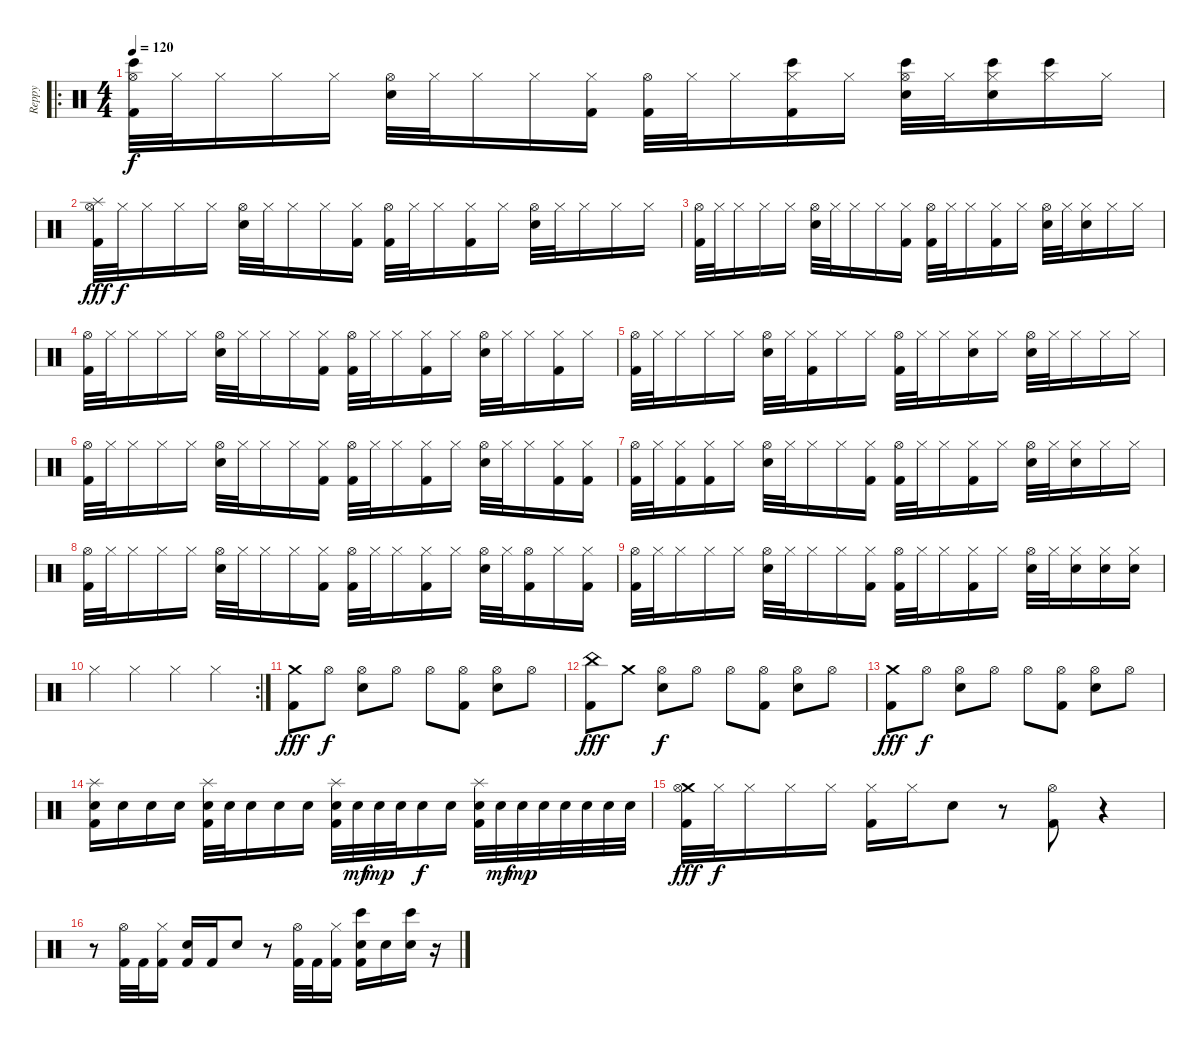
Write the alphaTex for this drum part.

\track ("Reppy" "Reppy") {instrument percussion}
\staff {score}
\articulation defaults
\ro
\ts (4 4)
\tempo 120
\clef neutral
\ks c
("Bongo High (hit)" "Hi-Hat (open)" "Kick (hit) 2").32{dy f} "Hi-Hat (closed)".32 "Hi-Hat (closed)".16 "Hi-Hat (closed)".16 "Hi-Hat (closed)".16 ("Hi-Hat (open)" "Electric Snare (hit)").32 "Hi-Hat (closed)".32 "Hi-Hat (closed)".16 "Hi-Hat (closed)".16 ("Hi-Hat (closed)" "Kick (hit) 2").16 ("Hi-Hat (open)" "Kick (hit) 2").32 "Hi-Hat (closed)".32 "Hi-Hat (closed)".16 ("Bongo High (hit)" "Hi-Hat (closed)" "Kick (hit) 2").16 "Hi-Hat (closed)".16 ("Bongo High (hit)" "Hi-Hat (open)" "Electric Snare (hit)").32 "Hi-Hat (closed)".32 ("Bongo High (hit)" "Hi-Hat (closed)" "Electric Snare (hit)").16 ("Bongo High (hit)" "Hi-Hat (closed)").16 "Hi-Hat (closed)".16 |
("Splash (hit)" "Hi-Hat (open)" "Kick (hit) 2").32{dy fff} "Hi-Hat (closed)".32{dy f} "Hi-Hat (closed)".16 "Hi-Hat (closed)".16 "Hi-Hat (closed)".16 ("Hi-Hat (open)" "Electric Snare (hit)").32 "Hi-Hat (closed)".32 "Hi-Hat (closed)".16 "Hi-Hat (closed)".16 ("Hi-Hat (closed)" "Kick (hit) 2").16 ("Hi-Hat (open)" "Kick (hit) 2").32 "Hi-Hat (closed)".32 "Hi-Hat (closed)".16 ("Hi-Hat (closed)" "Kick (hit) 2").16 "Hi-Hat (closed)".16 ("Hi-Hat (open)" "Electric Snare (hit)").32 "Hi-Hat (closed)".32 "Hi-Hat (closed)".16 "Hi-Hat (closed)".16 "Hi-Hat (closed)".16 |
("Hi-Hat (open)" "Kick (hit) 2").32 "Hi-Hat (closed)".32 "Hi-Hat (closed)".16 "Hi-Hat (closed)".16 "Hi-Hat (closed)".16 ("Hi-Hat (open)" "Electric Snare (hit)").32 "Hi-Hat (closed)".32 "Hi-Hat (closed)".16 "Hi-Hat (closed)".16 ("Hi-Hat (closed)" "Kick (hit) 2").16 ("Hi-Hat (open)" "Kick (hit) 2").32 "Hi-Hat (closed)".32 "Hi-Hat (closed)".16 ("Hi-Hat (closed)" "Kick (hit) 2").16 "Hi-Hat (closed)".16 ("Hi-Hat (open)" "Electric Snare (hit)").32 "Hi-Hat (closed)".32 ("Hi-Hat (closed)" "Electric Snare (hit)").16 "Hi-Hat (closed)".16 "Hi-Hat (closed)".16 |
("Hi-Hat (open)" "Kick (hit) 2").32 "Hi-Hat (closed)".32 "Hi-Hat (closed)".16 "Hi-Hat (closed)".16 "Hi-Hat (closed)".16 ("Hi-Hat (open)" "Electric Snare (hit)").32 "Hi-Hat (closed)".32 "Hi-Hat (closed)".16 "Hi-Hat (closed)".16 ("Hi-Hat (closed)" "Kick (hit) 2").16 ("Hi-Hat (open)" "Kick (hit) 2").32 "Hi-Hat (closed)".32 "Hi-Hat (closed)".16 ("Hi-Hat (closed)" "Kick (hit) 2").16 "Hi-Hat (closed)".16 ("Hi-Hat (open)" "Electric Snare (hit)").32 "Hi-Hat (closed)".32 "Hi-Hat (closed)".16 ("Hi-Hat (closed)" "Kick (hit) 2").16 "Hi-Hat (closed)".16 |
("Hi-Hat (open)" "Kick (hit) 2").32 "Hi-Hat (closed)".32 "Hi-Hat (closed)".16 "Hi-Hat (closed)".16 "Hi-Hat (closed)".16 ("Hi-Hat (open)" "Electric Snare (hit)").32 "Hi-Hat (closed)".32 ("Hi-Hat (closed)" "Kick (hit) 2").16 "Hi-Hat (closed)".16 "Hi-Hat (closed)".16 ("Hi-Hat (open)" "Kick (hit) 2").32 "Hi-Hat (closed)".32 "Hi-Hat (closed)".16 ("Hi-Hat (closed)" "Electric Snare (hit)").16 "Hi-Hat (closed)".16 ("Hi-Hat (open)" "Electric Snare (hit)").32 "Hi-Hat (closed)".32 "Hi-Hat (closed)".16 "Hi-Hat (closed)".16 "Hi-Hat (closed)".16 |
("Hi-Hat (open)" "Kick (hit) 2").32 "Hi-Hat (closed)".32 "Hi-Hat (closed)".16 "Hi-Hat (closed)".16 "Hi-Hat (closed)".16 ("Hi-Hat (open)" "Electric Snare (hit)").32 "Hi-Hat (closed)".32 "Hi-Hat (closed)".16 "Hi-Hat (closed)".16 ("Hi-Hat (closed)" "Kick (hit) 2").16 ("Hi-Hat (open)" "Kick (hit) 2").32 "Hi-Hat (closed)".32 "Hi-Hat (closed)".16 ("Hi-Hat (closed)" "Kick (hit) 2").16 "Hi-Hat (closed)".16 ("Hi-Hat (open)" "Electric Snare (hit)").32 "Hi-Hat (closed)".32 "Hi-Hat (closed)".16 ("Hi-Hat (closed)" "Kick (hit) 2").16 ("Hi-Hat (closed)" "Kick (hit) 2").16 |
("Hi-Hat (open)" "Kick (hit) 2").32 "Hi-Hat (closed)".32 ("Hi-Hat (closed)" "Kick (hit) 2").16 ("Hi-Hat (closed)" "Kick (hit) 2").16 "Hi-Hat (closed)".16 ("Hi-Hat (open)" "Electric Snare (hit)").32 "Hi-Hat (closed)".32 "Hi-Hat (closed)".16 "Hi-Hat (closed)".16 ("Hi-Hat (closed)" "Kick (hit) 2").16 ("Hi-Hat (open)" "Kick (hit) 2").32 "Hi-Hat (closed)".32 "Hi-Hat (closed)".16 ("Hi-Hat (closed)" "Kick (hit) 2").16 "Hi-Hat (closed)".16 ("Hi-Hat (open)" "Electric Snare (hit)").32 "Hi-Hat (closed)".32 ("Hi-Hat (closed)" "Electric Snare (hit)").16 "Hi-Hat (closed)".16 "Hi-Hat (closed)".16 |
("Hi-Hat (open)" "Kick (hit) 2").32 "Hi-Hat (closed)".32 "Hi-Hat (closed)".16 "Hi-Hat (closed)".16 "Hi-Hat (closed)".16 ("Hi-Hat (open)" "Electric Snare (hit)").32 "Hi-Hat (closed)".32 "Hi-Hat (closed)".16 "Hi-Hat (closed)".16 ("Hi-Hat (closed)" "Kick (hit) 2").16 ("Hi-Hat (open)" "Kick (hit) 2").32 "Hi-Hat (closed)".32 "Hi-Hat (closed)".16 ("Hi-Hat (closed)" "Kick (hit) 2").16 "Hi-Hat (closed)".16 ("Hi-Hat (open)" "Electric Snare (hit)").32 "Hi-Hat (closed)".32 ("Hi-Hat (open)" "Kick (hit) 2").16 "Hi-Hat (closed)".16 ("Hi-Hat (closed)" "Kick (hit) 2").16 |
("Hi-Hat (open)" "Kick (hit) 2").32 "Hi-Hat (closed)".32 "Hi-Hat (closed)".16 "Hi-Hat (closed)".16 "Hi-Hat (closed)".16 ("Hi-Hat (open)" "Electric Snare (hit)").32 "Hi-Hat (closed)".32 "Hi-Hat (closed)".16 "Hi-Hat (closed)".16 ("Hi-Hat (closed)" "Kick (hit) 2").16 ("Hi-Hat (open)" "Kick (hit) 2").32 "Hi-Hat (closed)".32 "Hi-Hat (closed)".16 ("Hi-Hat (closed)" "Kick (hit) 2").16 "Hi-Hat (closed)".16 ("Hi-Hat (open)" "Electric Snare (hit)").32 "Hi-Hat (closed)".32 ("Hi-Hat (closed)" "Electric Snare (hit)").16 ("Hi-Hat (closed)" "Electric Snare (hit)").16 ("Hi-Hat (closed)" "Electric Snare (hit)").16 |
\rc 2 "Hi-Hat (closed)".4 "Hi-Hat (closed)".4 "Hi-Hat (closed)".4 "Hi-Hat (closed)".4
|
("Crash medium (hit)" "Kick (hit) 2").8{dy fff} "Hi-Hat (open)".8{dy f} ("Hi-Hat (open)" "Electric Snare (hit)").8 "Hi-Hat (open)".8 "Hi-Hat (open)".8 ("Hi-Hat (open)" "Kick (hit) 2").8 ("Hi-Hat (open)" "Electric Snare (hit)").8 "Hi-Hat (open)".8 |
("China (hit)" "Kick (hit) 2").8{dy fff} "Crash medium (hit)".8 ("Hi-Hat (open)" "Electric Snare (hit)").8{dy f} "Hi-Hat (open)".8 "Hi-Hat (open)".8 ("Hi-Hat (open)" "Kick (hit) 2").8 ("Hi-Hat (open)" "Electric Snare (hit)").8 "Hi-Hat (open)".8 |
("Crash medium (hit)" "Kick (hit) 2").8{dy fff} "Hi-Hat (open)".8{dy f} ("Hi-Hat (open)" "Electric Snare (hit)").8 "Hi-Hat (open)".8 "Hi-Hat (open)".8 ("Hi-Hat (open)" "Kick (hit) 2").8 ("Hi-Hat (open)" "Electric Snare (hit)").8 "Hi-Hat (open)".8 |
("Splash (hit)" "Electric Snare (hit)" "Kick (hit) 2").16 "Electric Snare (hit)".16 "Electric Snare (hit)".16 "Electric Snare (hit)".16 ("Splash (hit)" "Electric Snare (hit)" "Kick (hit) 2").32 "Electric Snare (hit)".32 "Electric Snare (hit)".16 "Electric Snare (hit)".16 "Electric Snare (hit)".16 ("Splash (hit)" "Electric Snare (hit)" "Kick (hit) 2").32 "Electric Snare (hit)".32{dy mf} "Electric Snare (hit)".32{dy mp} "Electric Snare (hit)".32 "Electric Snare (hit)".16{dy f} "Electric Snare (hit)".16 ("Splash (hit)" "Electric Snare (hit)" "Kick (hit) 2").32 "Electric Snare (hit)".32{dy mf} "Electric Snare (hit)".32{dy mp} "Electric Snare (hit)".32 "Electric Snare (hit)".32 "Electric Snare (hit)".32 "Electric Snare (hit)".32 "Electric Snare (hit)".32 |
("Crash medium (hit)" "Hi-Hat (open)" "Kick (hit) 2").32{dy fff} "Hi-Hat (closed)".32{dy f} "Hi-Hat (closed)".16 "Hi-Hat (closed)".16 "Hi-Hat (closed)".16 ("Hi-Hat (closed)" "Kick (hit) 2").16 "Hi-Hat (closed)".16 "Electric Snare (hit)".8 r.8 ("Hi-Hat (open)" "Kick (hit) 2").8 r.4 |
r.8 ("Hi-Hat (open)" "Kick (hit) 2").32 "Kick (hit) 2".32 ("Hi-Hat (closed)" "Kick (hit) 2").16 ("Electric Snare (hit)" "Kick (hit) 2").16 "Kick (hit) 2".16 "Electric Snare (hit)".8 r.8 ("Hi-Hat (open)" "Kick (hit) 2").32 "Kick (hit) 2".32 ("Hi-Hat (closed)" "Kick (hit) 2").16 ("Bongo High (hit)" "Electric Snare (hit)" "Kick (hit) 2").16 "Electric Snare (hit)".16 ("Bongo High (hit)" "Electric Snare (hit)").16 r.16
